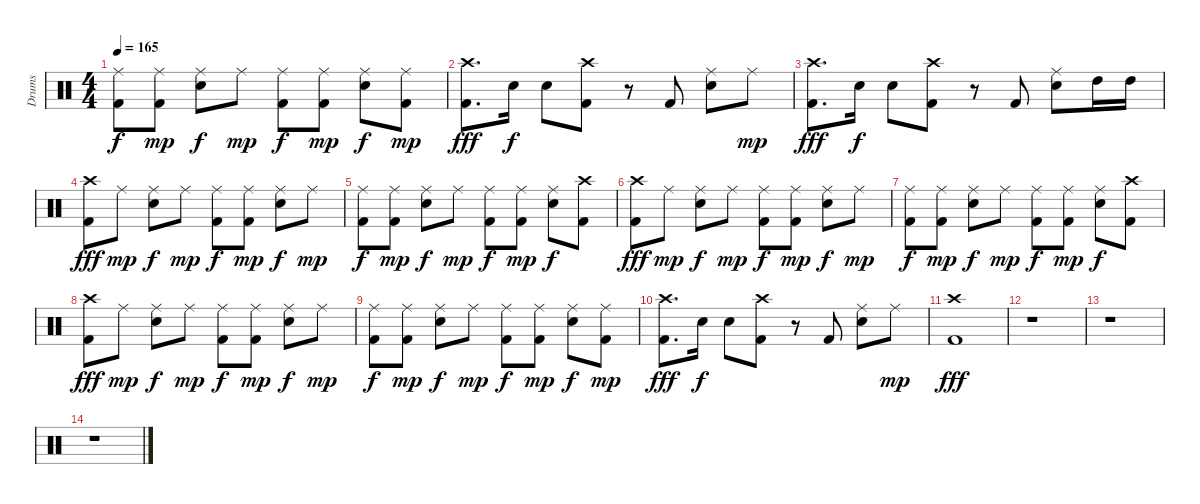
\track ("Drums" "Drums") {instrument percussion}
\staff {score}
\articulation defaults
\ts (4 4)
\tempo 165
\clef neutral
\ks c
("Ride (middle)" "Kick (hit) 2").8{dy f} ("Ride (middle)" "Kick (hit) 2").8{dy mp} ("Ride (middle)" "Electric Snare (hit)").8{dy f} "Ride (middle)".8{dy mp} ("Ride (middle)" "Kick (hit) 2").8{dy f} ("Ride (middle)" "Kick (hit) 2").8{dy mp} ("Ride (middle)" "Electric Snare (hit)").8{dy f} ("Ride (middle)" "Kick (hit) 2").8{dy mp} |
("Crash high (hit)" "Kick (hit) 2").8{d dy fff} "Electric Snare (hit)".16{dy f} "Electric Snare (hit)".8 ("Crash high (hit)" "Kick (hit) 2").8 r.8 "Kick (hit) 2".8 ("Ride (middle)" "Electric Snare (hit)").8 "Ride (middle)".8{dy mp} |
("Crash high (hit)" "Kick (hit) 2").8{d dy fff} "Electric Snare (hit)".16{dy f} "Electric Snare (hit)".8 ("Crash high (hit)" "Kick (hit) 2").8 r.8 "Kick (hit) 2".8 ("Ride (middle)" "Electric Snare (hit)").8 "High Tom (hit)".16 "High Tom (hit)".16 |
("Crash high (hit)" "Kick (hit) 2").8{dy fff} "Ride (middle)".8{dy mp} ("Ride (middle)" "Electric Snare (hit)").8{dy f} "Ride (middle)".8{dy mp} ("Ride (middle)" "Kick (hit) 2").8{dy f} ("Ride (middle)" "Kick (hit) 2").8{dy mp} ("Ride (middle)" "Electric Snare (hit)").8{dy f} "Ride (middle)".8{dy mp} |
("Ride (middle)" "Kick (hit) 2").8{dy f} ("Ride (middle)" "Kick (hit) 2").8{dy mp} ("Ride (middle)" "Electric Snare (hit)").8{dy f} "Ride (middle)".8{dy mp} ("Ride (middle)" "Kick (hit) 2").8{dy f} ("Ride (middle)" "Kick (hit) 2").8{dy mp} ("Ride (middle)" "Electric Snare (hit)").8{dy f} ("Crash high (hit)" "Kick (hit) 2").8 |
("Crash high (hit)" "Kick (hit) 2").8{dy fff} "Ride (middle)".8{dy mp} ("Ride (middle)" "Electric Snare (hit)").8{dy f} "Ride (middle)".8{dy mp} ("Ride (middle)" "Kick (hit) 2").8{dy f} ("Ride (middle)" "Kick (hit) 2").8{dy mp} ("Ride (middle)" "Electric Snare (hit)").8{dy f} "Ride (middle)".8{dy mp} |
("Ride (middle)" "Kick (hit) 2").8{dy f} ("Ride (middle)" "Kick (hit) 2").8{dy mp} ("Ride (middle)" "Electric Snare (hit)").8{dy f} "Ride (middle)".8{dy mp} ("Ride (middle)" "Kick (hit) 2").8{dy f} ("Ride (middle)" "Kick (hit) 2").8{dy mp} ("Ride (middle)" "Electric Snare (hit)").8{dy f} ("Crash high (hit)" "Kick (hit) 2").8 |
("Crash high (hit)" "Kick (hit) 2").8{dy fff} "Ride (middle)".8{dy mp} ("Ride (middle)" "Electric Snare (hit)").8{dy f} "Ride (middle)".8{dy mp} ("Ride (middle)" "Kick (hit) 2").8{dy f} ("Ride (middle)" "Kick (hit) 2").8{dy mp} ("Ride (middle)" "Electric Snare (hit)").8{dy f} "Ride (middle)".8{dy mp} |
("Ride (middle)" "Kick (hit) 2").8{dy f} ("Ride (middle)" "Kick (hit) 2").8{dy mp} ("Ride (middle)" "Electric Snare (hit)").8{dy f} "Ride (middle)".8{dy mp} ("Ride (middle)" "Kick (hit) 2").8{dy f} ("Ride (middle)" "Kick (hit) 2").8{dy mp} ("Ride (middle)" "Electric Snare (hit)").8{dy f} ("Ride (middle)" "Kick (hit) 2").8{dy mp} |
("Crash high (hit)" "Kick (hit) 2").8{d dy fff} "Electric Snare (hit)".16{dy f} "Electric Snare (hit)".8 ("Crash high (hit)" "Kick (hit) 2").8 r.8 "Kick (hit) 2".8 ("Ride (middle)" "Electric Snare (hit)").8 "Ride (middle)".8{dy mp} |
("Crash high (hit)" "Kick (hit) 2").1{dy fff} |
r.1 |
r.1 |
r.1
